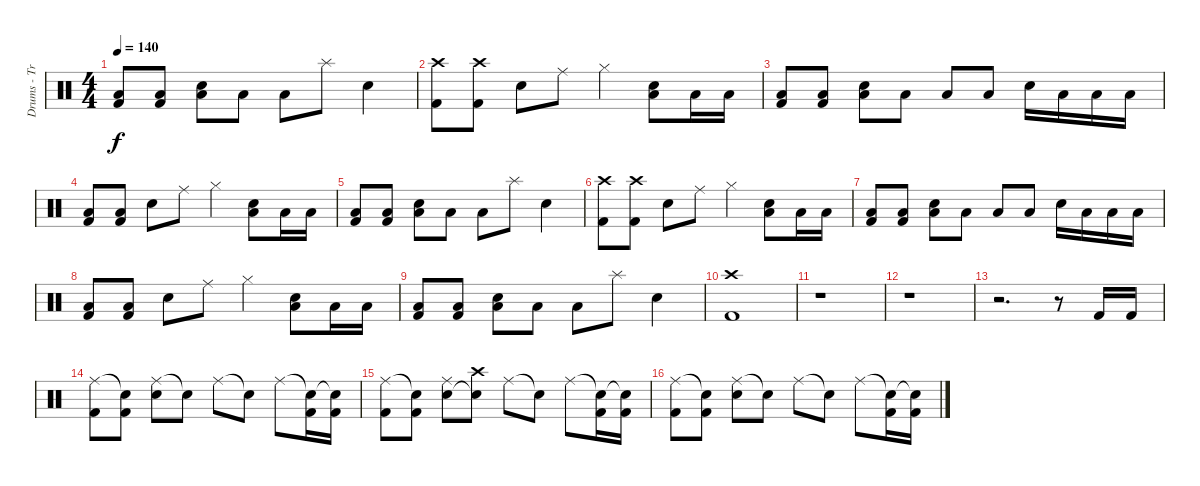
\track ("Drums - Travis Barker" "Drums - Tr") {instrument percussion}
\staff {score}
\articulation defaults
\ts (4 4)
\tempo 140
\clef neutral
\ks c
("Low Floor Tom (hit)" "Kick (hit) 2").8{dy f} ("Low Floor Tom (hit)" "Kick (hit) 2").8 ("Low Floor Tom (hit)" "Snare (hit) 2").8 "Low Floor Tom (hit)".8 "Low Floor Tom (hit)".8 "Splash (hit)".8 "Snare (hit) 2".4 |
("Crash high (hit)" "Kick (hit) 2").8 ("Crash high (hit)" "Kick (hit) 2").8 "Snare (hit) 2".8 "Ride (middle)".8 "Hi-Hat (closed)".4 ("Low Floor Tom (hit)" "Snare (hit) 2").8 "Low Floor Tom (hit)".16 "Low Floor Tom (hit)".16 |
("Low Floor Tom (hit)" "Kick (hit) 2").8 ("Low Floor Tom (hit)" "Kick (hit) 2").8 ("Low Floor Tom (hit)" "Snare (hit) 2").8 "Low Floor Tom (hit)".8 "Low Floor Tom (hit)".8 "Low Floor Tom (hit)".8 "Snare (hit) 2".16 "Low Tom (hit)".16 "Low Floor Tom (hit)".16 "Low Floor Tom (hit)".16 |
("Low Floor Tom (hit)" "Kick (hit) 2").8 ("Low Floor Tom (hit)" "Kick (hit) 2").8 "Snare (hit) 2".8 "Ride (middle)".8 "Hi-Hat (closed)".4 ("Low Floor Tom (hit)" "Snare (hit) 2").8 "Low Floor Tom (hit)".16 "Low Floor Tom (hit)".16 |
("Low Floor Tom (hit)" "Kick (hit) 2").8 ("Low Floor Tom (hit)" "Kick (hit) 2").8 ("Low Floor Tom (hit)" "Snare (hit) 2").8 "Low Floor Tom (hit)".8 "Low Floor Tom (hit)".8 "Splash (hit)".8 "Snare (hit) 2".4 |
("Crash high (hit)" "Kick (hit) 2").8 ("Crash high (hit)" "Kick (hit) 2").8 "Snare (hit) 2".8 "Ride (middle)".8 "Hi-Hat (closed)".4 ("Low Floor Tom (hit)" "Snare (hit) 2").8 "Low Floor Tom (hit)".16 "Low Floor Tom (hit)".16 |
("Low Floor Tom (hit)" "Kick (hit) 2").8 ("Low Floor Tom (hit)" "Kick (hit) 2").8 ("Low Floor Tom (hit)" "Snare (hit) 2").8 "Low Floor Tom (hit)".8 "Low Floor Tom (hit)".8 "Low Floor Tom (hit)".8 "Snare (hit) 2".16 "Low Tom (hit)".16 "Low Floor Tom (hit)".16 "Low Floor Tom (hit)".16 |
("Low Floor Tom (hit)" "Kick (hit) 2").8 ("Low Floor Tom (hit)" "Kick (hit) 2").8 "Snare (hit) 2".8 "Ride (middle)".8 "Hi-Hat (closed)".4 ("Low Floor Tom (hit)" "Snare (hit) 2").8 "Low Floor Tom (hit)".16 "Low Floor Tom (hit)".16 |
("Low Floor Tom (hit)" "Kick (hit) 2").8 ("Low Floor Tom (hit)" "Kick (hit) 2").8 ("Low Floor Tom (hit)" "Snare (hit) 2").8 "Low Floor Tom (hit)".8 "Low Floor Tom (hit)".8 "Splash (hit)".8 "Snare (hit) 2".4 |
("Crash high (hit)" "Kick (hit) 2").1 |
r.1 |
r.1 |
r.2{d} r.8 "Kick (hit) 2".16 "Kick (hit) 2".16 |
("Ride (middle)" "Kick (hit) 2").8 ("Snare (hit)"{t} "Kick (hit) 2").8 ("Ride (middle)" "Snare (hit) 2").8 "Snare (hit)"{t}.8 "Ride (middle)".8 "Snare (hit)"{t}.8 "Ride (middle)".8 ("Snare (hit)"{t} "Kick (hit) 2").16 ("Snare (hit)"{t} "Kick (hit) 2").16 |
("Ride (middle)" "Kick (hit) 2").8 ("Snare (hit)"{t} "Kick (hit) 2").8 ("Ride (middle)" "Snare (hit) 2").8 ("Crash high (hit)" "Snare (hit)"{t}).8 "Ride (middle)".8 "Snare (hit)"{t}.8 "Ride (middle)".8 ("Snare (hit)"{t} "Kick (hit) 2").16 ("Snare (hit)"{t} "Kick (hit) 2").16 |
("Ride (middle)" "Kick (hit) 2").8 ("Snare (hit)"{t} "Kick (hit) 2").8 ("Ride (middle)" "Snare (hit) 2").8 "Snare (hit)"{t}.8 "Ride (middle)".8 "Snare (hit)"{t}.8 "Ride (middle)".8 ("Snare (hit)"{t} "Kick (hit) 2").16 ("Snare (hit)"{t} "Kick (hit) 2").16
